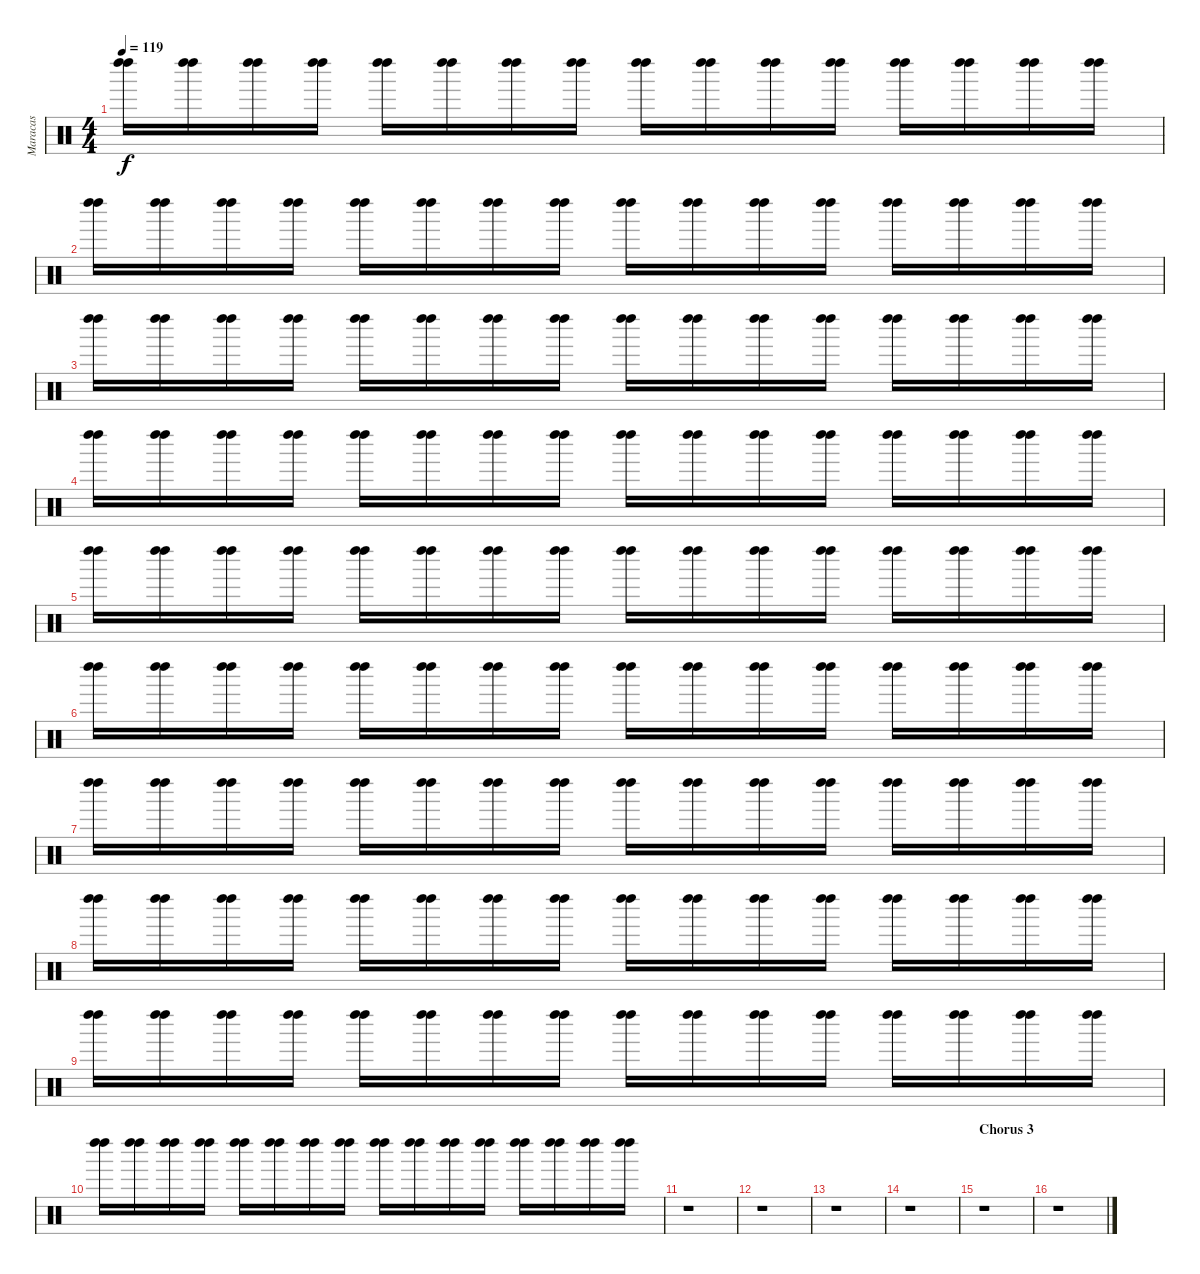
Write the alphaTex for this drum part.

\track ("Maracas" "Maracas") {instrument percussion}
\staff {score}
\articulation defaults
\ts (4 4)
\tempo 119
\clef neutral
\ks c
("Left Maraca (hit)" "Left Maraca (hit)").16{dy f} ("Left Maraca (hit)" "Left Maraca (hit)").16 ("Left Maraca (hit)" "Left Maraca (hit)").16 ("Left Maraca (hit)" "Left Maraca (hit)").16 ("Left Maraca (hit)" "Left Maraca (hit)").16 ("Left Maraca (hit)" "Left Maraca (hit)").16 ("Left Maraca (hit)" "Left Maraca (hit)").16 ("Left Maraca (hit)" "Left Maraca (hit)").16 ("Left Maraca (hit)" "Left Maraca (hit)").16 ("Left Maraca (hit)" "Left Maraca (hit)").16 ("Left Maraca (hit)" "Left Maraca (hit)").16 ("Left Maraca (hit)" "Left Maraca (hit)").16 ("Left Maraca (hit)" "Left Maraca (hit)").16 ("Left Maraca (hit)" "Left Maraca (hit)").16 ("Left Maraca (hit)" "Left Maraca (hit)").16 ("Left Maraca (hit)" "Left Maraca (hit)").16 |
("Left Maraca (hit)" "Left Maraca (hit)").16 ("Left Maraca (hit)" "Left Maraca (hit)").16 ("Left Maraca (hit)" "Left Maraca (hit)").16 ("Left Maraca (hit)" "Left Maraca (hit)").16 ("Left Maraca (hit)" "Left Maraca (hit)").16 ("Left Maraca (hit)" "Left Maraca (hit)").16 ("Left Maraca (hit)" "Left Maraca (hit)").16 ("Left Maraca (hit)" "Left Maraca (hit)").16 ("Left Maraca (hit)" "Left Maraca (hit)").16 ("Left Maraca (hit)" "Left Maraca (hit)").16 ("Left Maraca (hit)" "Left Maraca (hit)").16 ("Left Maraca (hit)" "Left Maraca (hit)").16 ("Left Maraca (hit)" "Left Maraca (hit)").16 ("Left Maraca (hit)" "Left Maraca (hit)").16 ("Left Maraca (hit)" "Left Maraca (hit)").16 ("Left Maraca (hit)" "Left Maraca (hit)").16 |
("Left Maraca (hit)" "Left Maraca (hit)").16 ("Left Maraca (hit)" "Left Maraca (hit)").16 ("Left Maraca (hit)" "Left Maraca (hit)").16 ("Left Maraca (hit)" "Left Maraca (hit)").16 ("Left Maraca (hit)" "Left Maraca (hit)").16 ("Left Maraca (hit)" "Left Maraca (hit)").16 ("Left Maraca (hit)" "Left Maraca (hit)").16 ("Left Maraca (hit)" "Left Maraca (hit)").16 ("Left Maraca (hit)" "Left Maraca (hit)").16 ("Left Maraca (hit)" "Left Maraca (hit)").16 ("Left Maraca (hit)" "Left Maraca (hit)").16 ("Left Maraca (hit)" "Left Maraca (hit)").16 ("Left Maraca (hit)" "Left Maraca (hit)").16 ("Left Maraca (hit)" "Left Maraca (hit)").16 ("Left Maraca (hit)" "Left Maraca (hit)").16 ("Left Maraca (hit)" "Left Maraca (hit)").16 |
("Left Maraca (hit)" "Left Maraca (hit)").16 ("Left Maraca (hit)" "Left Maraca (hit)").16 ("Left Maraca (hit)" "Left Maraca (hit)").16 ("Left Maraca (hit)" "Left Maraca (hit)").16 ("Left Maraca (hit)" "Left Maraca (hit)").16 ("Left Maraca (hit)" "Left Maraca (hit)").16 ("Left Maraca (hit)" "Left Maraca (hit)").16 ("Left Maraca (hit)" "Left Maraca (hit)").16 ("Left Maraca (hit)" "Left Maraca (hit)").16 ("Left Maraca (hit)" "Left Maraca (hit)").16 ("Left Maraca (hit)" "Left Maraca (hit)").16 ("Left Maraca (hit)" "Left Maraca (hit)").16 ("Left Maraca (hit)" "Left Maraca (hit)").16 ("Left Maraca (hit)" "Left Maraca (hit)").16 ("Left Maraca (hit)" "Left Maraca (hit)").16 ("Left Maraca (hit)" "Left Maraca (hit)").16 |
("Left Maraca (hit)" "Left Maraca (hit)").16 ("Left Maraca (hit)" "Left Maraca (hit)").16 ("Left Maraca (hit)" "Left Maraca (hit)").16 ("Left Maraca (hit)" "Left Maraca (hit)").16 ("Left Maraca (hit)" "Left Maraca (hit)").16 ("Left Maraca (hit)" "Left Maraca (hit)").16 ("Left Maraca (hit)" "Left Maraca (hit)").16 ("Left Maraca (hit)" "Left Maraca (hit)").16 ("Left Maraca (hit)" "Left Maraca (hit)").16 ("Left Maraca (hit)" "Left Maraca (hit)").16 ("Left Maraca (hit)" "Left Maraca (hit)").16 ("Left Maraca (hit)" "Left Maraca (hit)").16 ("Left Maraca (hit)" "Left Maraca (hit)").16 ("Left Maraca (hit)" "Left Maraca (hit)").16 ("Left Maraca (hit)" "Left Maraca (hit)").16 ("Left Maraca (hit)" "Left Maraca (hit)").16 |
("Left Maraca (hit)" "Left Maraca (hit)").16 ("Left Maraca (hit)" "Left Maraca (hit)").16 ("Left Maraca (hit)" "Left Maraca (hit)").16 ("Left Maraca (hit)" "Left Maraca (hit)").16 ("Left Maraca (hit)" "Left Maraca (hit)").16 ("Left Maraca (hit)" "Left Maraca (hit)").16 ("Left Maraca (hit)" "Left Maraca (hit)").16 ("Left Maraca (hit)" "Left Maraca (hit)").16 ("Left Maraca (hit)" "Left Maraca (hit)").16 ("Left Maraca (hit)" "Left Maraca (hit)").16 ("Left Maraca (hit)" "Left Maraca (hit)").16 ("Left Maraca (hit)" "Left Maraca (hit)").16 ("Left Maraca (hit)" "Left Maraca (hit)").16 ("Left Maraca (hit)" "Left Maraca (hit)").16 ("Left Maraca (hit)" "Left Maraca (hit)").16 ("Left Maraca (hit)" "Left Maraca (hit)").16 |
("Left Maraca (hit)" "Left Maraca (hit)").16 ("Left Maraca (hit)" "Left Maraca (hit)").16 ("Left Maraca (hit)" "Left Maraca (hit)").16 ("Left Maraca (hit)" "Left Maraca (hit)").16 ("Left Maraca (hit)" "Left Maraca (hit)").16 ("Left Maraca (hit)" "Left Maraca (hit)").16 ("Left Maraca (hit)" "Left Maraca (hit)").16 ("Left Maraca (hit)" "Left Maraca (hit)").16 ("Left Maraca (hit)" "Left Maraca (hit)").16 ("Left Maraca (hit)" "Left Maraca (hit)").16 ("Left Maraca (hit)" "Left Maraca (hit)").16 ("Left Maraca (hit)" "Left Maraca (hit)").16 ("Left Maraca (hit)" "Left Maraca (hit)").16 ("Left Maraca (hit)" "Left Maraca (hit)").16 ("Left Maraca (hit)" "Left Maraca (hit)").16 ("Left Maraca (hit)" "Left Maraca (hit)").16 |
("Left Maraca (hit)" "Left Maraca (hit)").16 ("Left Maraca (hit)" "Left Maraca (hit)").16 ("Left Maraca (hit)" "Left Maraca (hit)").16 ("Left Maraca (hit)" "Left Maraca (hit)").16 ("Left Maraca (hit)" "Left Maraca (hit)").16 ("Left Maraca (hit)" "Left Maraca (hit)").16 ("Left Maraca (hit)" "Left Maraca (hit)").16 ("Left Maraca (hit)" "Left Maraca (hit)").16 ("Left Maraca (hit)" "Left Maraca (hit)").16 ("Left Maraca (hit)" "Left Maraca (hit)").16 ("Left Maraca (hit)" "Left Maraca (hit)").16 ("Left Maraca (hit)" "Left Maraca (hit)").16 ("Left Maraca (hit)" "Left Maraca (hit)").16 ("Left Maraca (hit)" "Left Maraca (hit)").16 ("Left Maraca (hit)" "Left Maraca (hit)").16 ("Left Maraca (hit)" "Left Maraca (hit)").16 |
("Left Maraca (hit)" "Left Maraca (hit)").16 ("Left Maraca (hit)" "Left Maraca (hit)").16 ("Left Maraca (hit)" "Left Maraca (hit)").16 ("Left Maraca (hit)" "Left Maraca (hit)").16 ("Left Maraca (hit)" "Left Maraca (hit)").16 ("Left Maraca (hit)" "Left Maraca (hit)").16 ("Left Maraca (hit)" "Left Maraca (hit)").16 ("Left Maraca (hit)" "Left Maraca (hit)").16 ("Left Maraca (hit)" "Left Maraca (hit)").16 ("Left Maraca (hit)" "Left Maraca (hit)").16 ("Left Maraca (hit)" "Left Maraca (hit)").16 ("Left Maraca (hit)" "Left Maraca (hit)").16 ("Left Maraca (hit)" "Left Maraca (hit)").16 ("Left Maraca (hit)" "Left Maraca (hit)").16 ("Left Maraca (hit)" "Left Maraca (hit)").16 ("Left Maraca (hit)" "Left Maraca (hit)").16 |
("Left Maraca (hit)" "Left Maraca (hit)").16 ("Left Maraca (hit)" "Left Maraca (hit)").16 ("Left Maraca (hit)" "Left Maraca (hit)").16 ("Left Maraca (hit)" "Left Maraca (hit)").16 ("Left Maraca (hit)" "Left Maraca (hit)").16 ("Left Maraca (hit)" "Left Maraca (hit)").16 ("Left Maraca (hit)" "Left Maraca (hit)").16 ("Left Maraca (hit)" "Left Maraca (hit)").16 ("Left Maraca (hit)" "Left Maraca (hit)").16 ("Left Maraca (hit)" "Left Maraca (hit)").16 ("Left Maraca (hit)" "Left Maraca (hit)").16 ("Left Maraca (hit)" "Left Maraca (hit)").16 ("Left Maraca (hit)" "Left Maraca (hit)").16 ("Left Maraca (hit)" "Left Maraca (hit)").16 ("Left Maraca (hit)" "Left Maraca (hit)").16 ("Left Maraca (hit)" "Left Maraca (hit)").16 |
r.1 |
r.1 |
r.1 |
r.1 |
\section ("" "Chorus 3")
r.1 |
r.1
